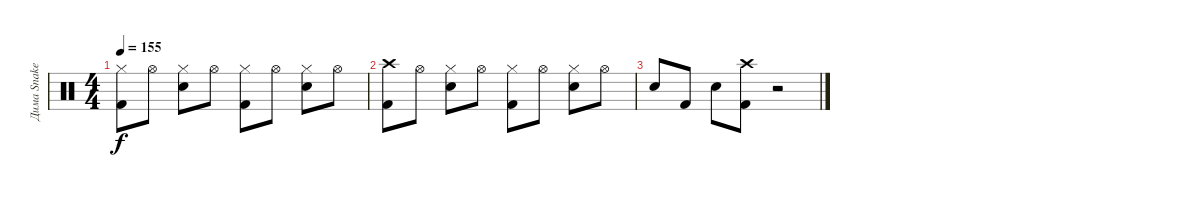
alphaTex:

\track ("Дима Snake Хакимов" "Дима Snake") {instrument percussion}
\staff {score}
\articulation defaults
\ts (4 4)
\tempo 155
\clef neutral
\ks c
("Hi-Hat (closed)" "Kick (hit) 2").8{dy f} "Hi-Hat (open)".8 ("Hi-Hat (closed)" "Snare (hit) 2").8 "Hi-Hat (open)".8 ("Hi-Hat (closed)" "Kick (hit) 2").8 "Hi-Hat (open)".8 ("Hi-Hat (closed)" "Snare (hit) 2").8 "Hi-Hat (open)".8 |
("Crash high (hit)" "Kick (hit) 2").8 "Hi-Hat (open)".8 ("Hi-Hat (closed)" "Snare (hit) 2").8 "Hi-Hat (open)".8 ("Hi-Hat (closed)" "Kick (hit) 2").8 "Hi-Hat (open)".8 ("Hi-Hat (closed)" "Snare (hit) 2").8 "Hi-Hat (open)".8 |
"Snare (hit) 2".8 "Kick (hit) 2".8 "Snare (hit) 2".8 ("Crash high (hit)" "Kick (hit) 2").8 r.2
